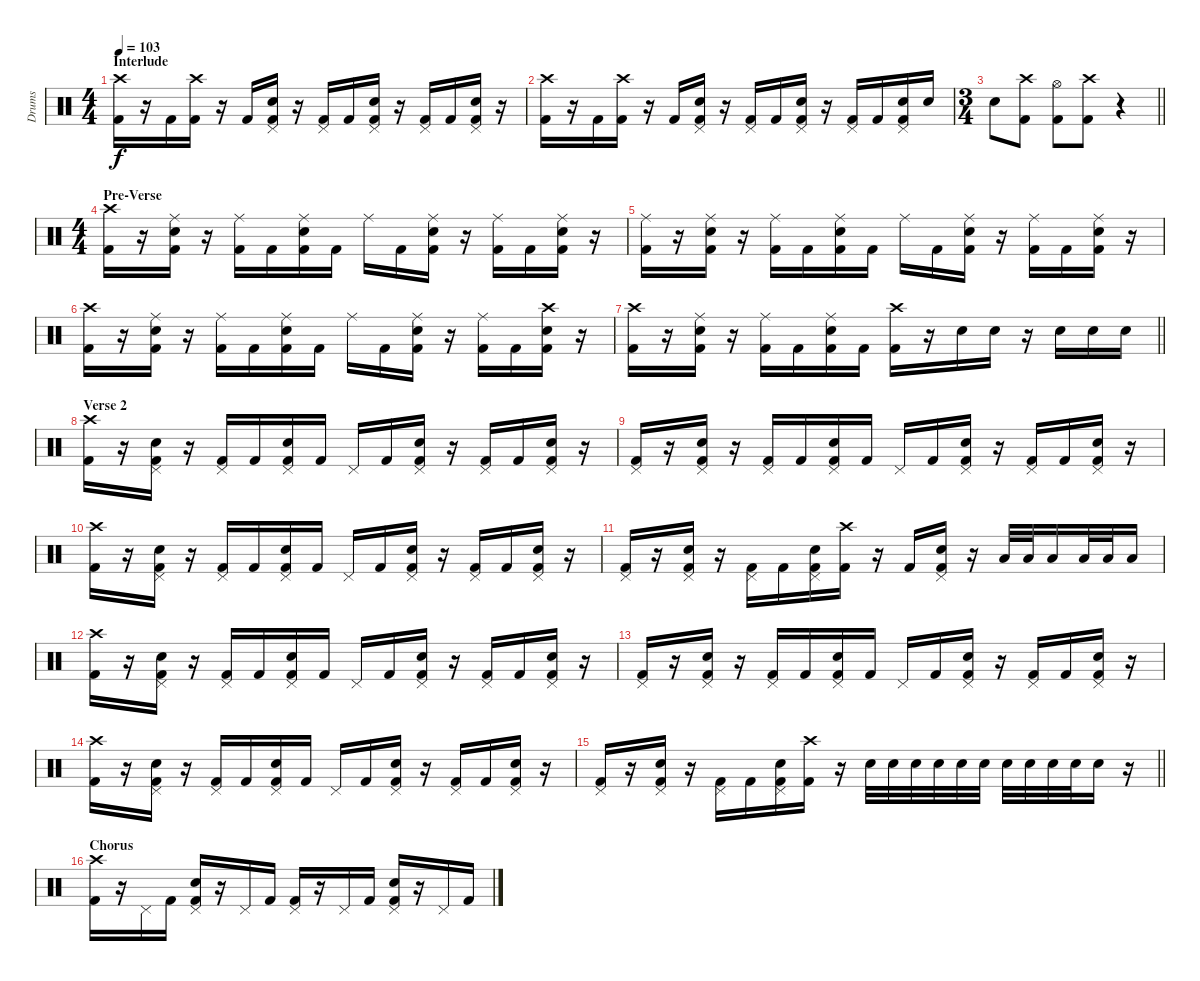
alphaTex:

\track ("Drums" "Drums") {instrument percussion}
\staff {score}
\articulation defaults
\ts (4 4)
\section ("" "Interlude")
\tempo 103
\clef neutral
\ks c
("Crash high (hit)" "Kick (hit) 2").16{dy f} r.16 "Kick (hit) 2".16 ("Crash high (hit)" "Kick (hit) 2").16 r.16 "Kick (hit) 2".16 ("Pedal Hi-Hat (hit)" "Snare (hit) 2" "Kick (hit) 2").16 r.16 ("Pedal Hi-Hat (hit)" "Kick (hit) 2").16 "Kick (hit) 2".16 ("Pedal Hi-Hat (hit)" "Snare (hit) 2" "Kick (hit) 2").16 r.16 ("Pedal Hi-Hat (hit)" "Kick (hit) 2").16 "Kick (hit) 2".16 ("Pedal Hi-Hat (hit)" "Snare (hit) 2" "Kick (hit) 2").16 r.16 |
("Crash high (hit)" "Kick (hit) 2").16 r.16 "Kick (hit) 2".16 ("Crash high (hit)" "Kick (hit) 2").16 r.16 "Kick (hit) 2".16 ("Pedal Hi-Hat (hit)" "Snare (hit) 2" "Kick (hit) 2").16 r.16 ("Pedal Hi-Hat (hit)" "Kick (hit) 2").16 "Kick (hit) 2".16 ("Pedal Hi-Hat (hit)" "Snare (hit) 2" "Kick (hit) 2").16 r.16 ("Pedal Hi-Hat (hit)" "Kick (hit) 2").16 "Kick (hit) 2".16 ("Pedal Hi-Hat (hit)" "Snare (hit) 2" "Kick (hit) 2").16 "Snare (hit) 2".16 |
\ts (3 4)
\barLineRight lightlight "Snare (hit) 2".8
("Crash high (hit)" "Kick (hit) 2").8 ("Hi-Hat (open)" "Kick (hit) 2").8 ("Crash high (hit)" "Kick (hit) 2").8 r.4 |
\ts (4 4)
\section ("" "Pre-Verse")
("Crash high (hit)" "Kick (hit) 2").16 r.16 ("Ride (middle)" "Snare (hit) 2" "Kick (hit) 2").16 r.16 ("Ride (middle)" "Kick (hit) 2").16 "Kick (hit) 2".16 ("Ride (middle)" "Snare (hit) 2" "Kick (hit) 2").16 "Kick (hit) 2".16 "Ride (middle)".16 "Kick (hit) 2".16 ("Ride (middle)" "Snare (hit) 2" "Kick (hit) 2").16 r.16 ("Ride (middle)" "Kick (hit) 2").16 "Kick (hit) 2".16 ("Ride (middle)" "Snare (hit) 2" "Kick (hit) 2").16 r.16 |
("Ride (middle)" "Kick (hit) 2").16 r.16 ("Ride (middle)" "Snare (hit) 2" "Kick (hit) 2").16 r.16 ("Ride (middle)" "Kick (hit) 2").16 "Kick (hit) 2".16 ("Ride (middle)" "Snare (hit) 2" "Kick (hit) 2").16 "Kick (hit) 2".16 "Ride (middle)".16 "Kick (hit) 2".16 ("Ride (middle)" "Snare (hit) 2" "Kick (hit) 2").16 r.16 ("Ride (middle)" "Kick (hit) 2").16 "Kick (hit) 2".16 ("Ride (middle)" "Snare (hit) 2" "Kick (hit) 2").16 r.16 |
("Crash high (hit)" "Kick (hit) 2").16 r.16 ("Ride (middle)" "Snare (hit) 2" "Kick (hit) 2").16 r.16 ("Ride (middle)" "Kick (hit) 2").16 "Kick (hit) 2".16 ("Ride (middle)" "Snare (hit) 2" "Kick (hit) 2").16 "Kick (hit) 2".16 "Ride (middle)".16 "Kick (hit) 2".16 ("Ride (middle)" "Snare (hit) 2" "Kick (hit) 2").16 r.16 ("Ride (middle)" "Kick (hit) 2").16 "Kick (hit) 2".16 ("Crash high (hit)" "Snare (hit) 2" "Kick (hit) 2").16 r.16 |
\barLineRight lightlight
("Crash high (hit)" "Kick (hit) 2").16 r.16 ("Ride (middle)" "Snare (hit) 2" "Kick (hit) 2").16 r.16 ("Ride (middle)" "Kick (hit) 2").16 "Kick (hit) 2".16 ("Ride (middle)" "Snare (hit) 2" "Kick (hit) 2").16 "Kick (hit) 2".16 ("Crash high (hit)" "Kick (hit) 2").16 r.16 "Snare (hit) 2".16 "Snare (hit) 2".16 r.16 "Snare (hit) 2".16 "Snare (hit) 2".16 "Snare (hit) 2".16 |
\section ("" "Verse 2")
("Crash high (hit)" "Kick (hit) 2").16 r.16 ("Pedal Hi-Hat (hit)" "Snare (hit) 2" "Kick (hit) 2").16 r.16 ("Pedal Hi-Hat (hit)" "Kick (hit) 2").16 "Kick (hit) 2".16 ("Pedal Hi-Hat (hit)" "Snare (hit) 2" "Kick (hit) 2").16 "Kick (hit) 2".16 "Pedal Hi-Hat (hit)".16 "Kick (hit) 2".16 ("Pedal Hi-Hat (hit)" "Snare (hit) 2" "Kick (hit) 2").16 r.16 ("Pedal Hi-Hat (hit)" "Kick (hit) 2").16 "Kick (hit) 2".16 ("Pedal Hi-Hat (hit)" "Snare (hit) 2" "Kick (hit) 2").16 r.16 |
("Pedal Hi-Hat (hit)" "Kick (hit) 2").16 r.16 ("Pedal Hi-Hat (hit)" "Snare (hit) 2" "Kick (hit) 2").16 r.16 ("Pedal Hi-Hat (hit)" "Kick (hit) 2").16 "Kick (hit) 2".16 ("Pedal Hi-Hat (hit)" "Snare (hit) 2" "Kick (hit) 2").16 "Kick (hit) 2".16 "Pedal Hi-Hat (hit)".16 "Kick (hit) 2".16 ("Pedal Hi-Hat (hit)" "Snare (hit) 2" "Kick (hit) 2").16 r.16 ("Pedal Hi-Hat (hit)" "Kick (hit) 2").16 "Kick (hit) 2".16 ("Pedal Hi-Hat (hit)" "Snare (hit) 2" "Kick (hit) 2").16 r.16 |
("Crash high (hit)" "Kick (hit) 2").16 r.16 ("Pedal Hi-Hat (hit)" "Snare (hit) 2" "Kick (hit) 2").16 r.16 ("Pedal Hi-Hat (hit)" "Kick (hit) 2").16 "Kick (hit) 2".16 ("Pedal Hi-Hat (hit)" "Snare (hit) 2" "Kick (hit) 2").16 "Kick (hit) 2".16 "Pedal Hi-Hat (hit)".16 "Kick (hit) 2".16 ("Pedal Hi-Hat (hit)" "Snare (hit) 2" "Kick (hit) 2").16 r.16 ("Pedal Hi-Hat (hit)" "Kick (hit) 2").16 "Kick (hit) 2".16 ("Pedal Hi-Hat (hit)" "Snare (hit) 2" "Kick (hit) 2").16 r.16 |
("Pedal Hi-Hat (hit)" "Kick (hit) 2").16 r.16 ("Pedal Hi-Hat (hit)" "Snare (hit) 2" "Kick (hit) 2").16 r.16 ("Pedal Hi-Hat (hit)" "Kick (hit) 2").16 "Kick (hit) 2".16 ("Pedal Hi-Hat (hit)" "Snare (hit) 2" "Kick (hit) 2").16 ("Crash high (hit)" "Kick (hit) 2").16 r.16 "Kick (hit) 2".16 ("Pedal Hi-Hat (hit)" "Snare (hit) 2" "Kick (hit) 2").16 r.16 "Low Tom (hit)".32 "Low Tom (hit)".32 "Low Tom (hit)".16 "Low Tom (hit)".32 "Low Tom (hit)".32 "Low Tom (hit)".16 |
("Crash high (hit)" "Kick (hit) 2").16 r.16 ("Pedal Hi-Hat (hit)" "Snare (hit) 2" "Kick (hit) 2").16 r.16 ("Pedal Hi-Hat (hit)" "Kick (hit) 2").16 "Kick (hit) 2".16 ("Pedal Hi-Hat (hit)" "Snare (hit) 2" "Kick (hit) 2").16 "Kick (hit) 2".16 "Pedal Hi-Hat (hit)".16 "Kick (hit) 2".16 ("Pedal Hi-Hat (hit)" "Snare (hit) 2" "Kick (hit) 2").16 r.16 ("Pedal Hi-Hat (hit)" "Kick (hit) 2").16 "Kick (hit) 2".16 ("Pedal Hi-Hat (hit)" "Snare (hit) 2" "Kick (hit) 2").16 r.16 |
("Pedal Hi-Hat (hit)" "Kick (hit) 2").16 r.16 ("Pedal Hi-Hat (hit)" "Snare (hit) 2" "Kick (hit) 2").16 r.16 ("Pedal Hi-Hat (hit)" "Kick (hit) 2").16 "Kick (hit) 2".16 ("Pedal Hi-Hat (hit)" "Snare (hit) 2" "Kick (hit) 2").16 "Kick (hit) 2".16 "Pedal Hi-Hat (hit)".16 "Kick (hit) 2".16 ("Pedal Hi-Hat (hit)" "Snare (hit) 2" "Kick (hit) 2").16 r.16 ("Pedal Hi-Hat (hit)" "Kick (hit) 2").16 "Kick (hit) 2".16 ("Pedal Hi-Hat (hit)" "Snare (hit) 2" "Kick (hit) 2").16 r.16 |
("Crash high (hit)" "Kick (hit) 2").16 r.16 ("Pedal Hi-Hat (hit)" "Snare (hit) 2" "Kick (hit) 2").16 r.16 ("Pedal Hi-Hat (hit)" "Kick (hit) 2").16 "Kick (hit) 2".16 ("Pedal Hi-Hat (hit)" "Snare (hit) 2" "Kick (hit) 2").16 "Kick (hit) 2".16 "Pedal Hi-Hat (hit)".16 "Kick (hit) 2".16 ("Pedal Hi-Hat (hit)" "Snare (hit) 2" "Kick (hit) 2").16 r.16 ("Pedal Hi-Hat (hit)" "Kick (hit) 2").16 "Kick (hit) 2".16 ("Pedal Hi-Hat (hit)" "Snare (hit) 2" "Kick (hit) 2").16 r.16 |
\barLineRight lightlight
("Pedal Hi-Hat (hit)" "Kick (hit) 2").16 r.16 ("Pedal Hi-Hat (hit)" "Snare (hit) 2" "Kick (hit) 2").16 r.16 ("Pedal Hi-Hat (hit)" "Kick (hit) 2").16 "Kick (hit) 2".16 ("Pedal Hi-Hat (hit)" "Snare (hit) 2" "Kick (hit) 2").16 ("Crash high (hit)" "Kick (hit) 2").16 r.16 "Snare (hit) 2".32 "Snare (hit) 2".32 "Snare (hit) 2".32 "Snare (hit) 2".32 "Snare (hit) 2".32 "Snare (hit) 2".32 "Snare (hit) 2".32 "Snare (hit) 2".32 "Snare (hit) 2".32 "Snare (hit) 2".32 "Snare (hit) 2".16 r.16 |
\section ("" "Chorus")
("Crash high (hit)" "Kick (hit) 2").16 r.16 "Pedal Hi-Hat (hit)".16 "Kick (hit) 2".16 ("Pedal Hi-Hat (hit)" "Snare (hit) 2" "Kick (hit) 2").16 r.16 "Pedal Hi-Hat (hit)".16 "Kick (hit) 2".16 ("Pedal Hi-Hat (hit)" "Kick (hit) 2").16 r.16 "Pedal Hi-Hat (hit)".16 "Kick (hit) 2".16 ("Pedal Hi-Hat (hit)" "Snare (hit) 2" "Kick (hit) 2").16 r.16 "Pedal Hi-Hat (hit)".16 "Kick (hit) 2".16
